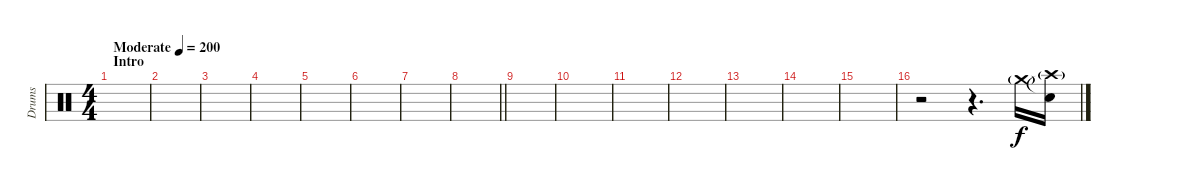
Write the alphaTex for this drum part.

\track ("Drums" "Drums") {instrument percussion}
\staff {score}
\articulation defaults
\ts (4 4)
\section ("" "Intro")
\tempo (200 "Moderate")
\clef neutral
\ks c
|
|
|
|
|
|
|
\barLineRight lightlight
|
\section ("" "")
|
|
|
|
|
|
|
r.2 r.4{d} "Crash medium (hit)"{g}.16 ("Snare (hit)"{t} "Crash high (hit)"{g}).16
